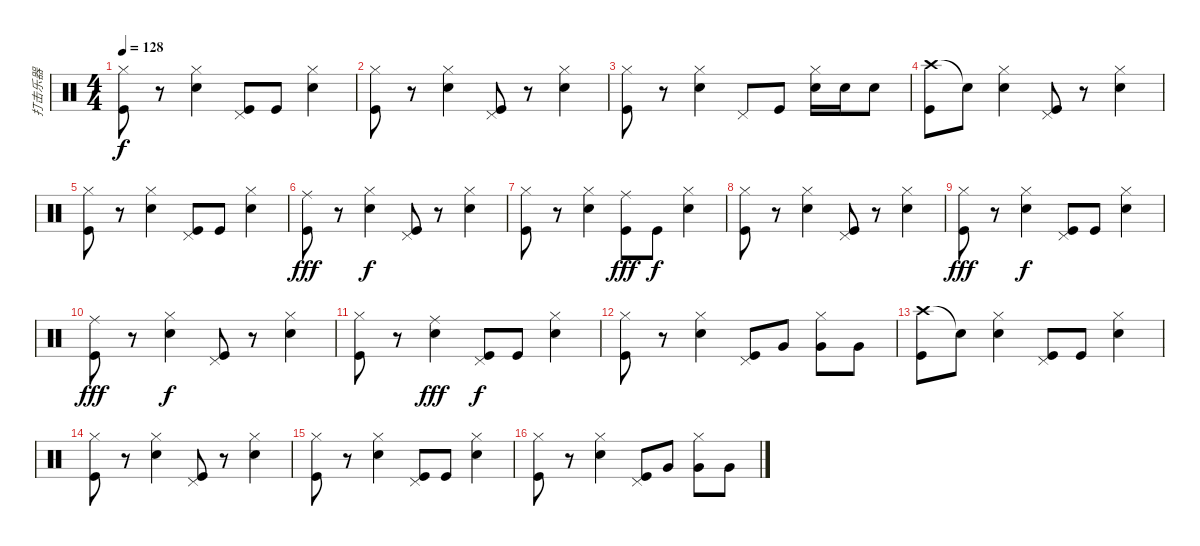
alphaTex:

\track ("打击乐器" "打击乐器") {instrument percussion}
\staff {score}
\articulation defaults
\ts (4 4)
\tempo 128
\clef neutral
\ks c
("Hi-Hat (closed)" "Kick (hit)").8{dy f} r.8 ("Hi-Hat (closed)" "Snare (hit) 2").4 ("Pedal Hi-Hat (hit)" "Kick (hit)").8 "Kick (hit)".8 ("Hi-Hat (closed)" "Snare (hit) 2").4 |
("Hi-Hat (closed)" "Kick (hit)").8 r.8 ("Hi-Hat (closed)" "Snare (hit) 2").4 ("Pedal Hi-Hat (hit)" "Kick (hit)").8 r.8 ("Hi-Hat (closed)" "Snare (hit) 2").4 |
("Hi-Hat (closed)" "Kick (hit)").8 r.8 ("Hi-Hat (closed)" "Snare (hit) 2").4 "Pedal Hi-Hat (hit)".8 "Kick (hit)".8 ("Hi-Hat (closed)" "Snare (hit) 2").16 "Snare (hit) 2".16 "Snare (hit) 2".8 |
("Crash high (hit)" "Kick (hit)").8 "Snare (hit)"{t}.8 ("Hi-Hat (closed)" "Snare (hit) 2").4 ("Pedal Hi-Hat (hit)" "Kick (hit)").8 r.8 ("Hi-Hat (closed)" "Snare (hit) 2").4 |
("Hi-Hat (closed)" "Kick (hit)").8 r.8 ("Hi-Hat (closed)" "Snare (hit) 2").4 ("Pedal Hi-Hat (hit)" "Kick (hit)").8 "Kick (hit)".8 ("Hi-Hat (closed)" "Snare (hit) 2").4 |
("Ride (middle)" "Kick (hit)").8{dy fff} r.8 ("Hi-Hat (closed)" "Snare (hit) 2").4{dy f} ("Pedal Hi-Hat (hit)" "Kick (hit)").8 r.8 ("Hi-Hat (closed)" "Snare (hit) 2").4 |
("Hi-Hat (closed)" "Kick (hit)").8 r.8 ("Hi-Hat (closed)" "Snare (hit) 2").4 ("Ride (middle)" "Kick (hit)").8{dy fff} "Kick (hit)".8{dy f} ("Hi-Hat (closed)" "Snare (hit) 2").4 |
("Hi-Hat (closed)" "Kick (hit)").8 r.8 ("Hi-Hat (closed)" "Snare (hit) 2").4 ("Pedal Hi-Hat (hit)" "Kick (hit)").8 r.8 ("Hi-Hat (closed)" "Snare (hit) 2").4 |
("Hi-Hat (closed)" "Kick (hit)").8{dy fff} r.8 ("Hi-Hat (closed)" "Snare (hit) 2").4{dy f} ("Pedal Hi-Hat (hit)" "Kick (hit)").8 "Kick (hit)".8 ("Hi-Hat (closed)" "Snare (hit) 2").4 |
("Ride (middle)" "Kick (hit)").8{dy fff} r.8 ("Hi-Hat (closed)" "Snare (hit) 2").4{dy f} ("Pedal Hi-Hat (hit)" "Kick (hit)").8 r.8 ("Hi-Hat (closed)" "Snare (hit) 2").4 |
("Hi-Hat (closed)" "Kick (hit)").8 r.8 ("Ride (middle)" "Snare (hit) 2").4{dy fff} ("Pedal Hi-Hat (hit)" "Kick (hit)").8{dy f} "Kick (hit)".8 ("Hi-Hat (closed)" "Snare (hit) 2").4 |
("Hi-Hat (closed)" "Kick (hit)").8 r.8 ("Hi-Hat (closed)" "Snare (hit) 2").4 ("Pedal Hi-Hat (hit)" "Kick (hit)").8 "Very Low Tom (hit)".8 ("Hi-Hat (closed)" "Very Low Tom (hit)").8 "Very Low Tom (hit)".8 |
("Crash high (hit)" "Kick (hit)").8 "Snare (hit)"{t}.8 ("Hi-Hat (closed)" "Snare (hit) 2").4 ("Pedal Hi-Hat (hit)" "Kick (hit)").8 "Kick (hit)".8 ("Hi-Hat (closed)" "Snare (hit) 2").4 |
("Hi-Hat (closed)" "Kick (hit)").8 r.8 ("Hi-Hat (closed)" "Snare (hit) 2").4 ("Pedal Hi-Hat (hit)" "Kick (hit)").8 r.8 ("Hi-Hat (closed)" "Snare (hit) 2").4 |
("Hi-Hat (closed)" "Kick (hit)").8 r.8 ("Hi-Hat (closed)" "Snare (hit) 2").4 ("Pedal Hi-Hat (hit)" "Kick (hit)").8 "Kick (hit)".8 ("Hi-Hat (closed)" "Snare (hit) 2").4 |
("Hi-Hat (closed)" "Kick (hit)").8 r.8 ("Hi-Hat (closed)" "Snare (hit) 2").4 ("Pedal Hi-Hat (hit)" "Kick (hit)").8 "Very Low Tom (hit)".8 ("Hi-Hat (closed)" "Very Low Tom (hit)").8 "Very Low Tom (hit)".8
